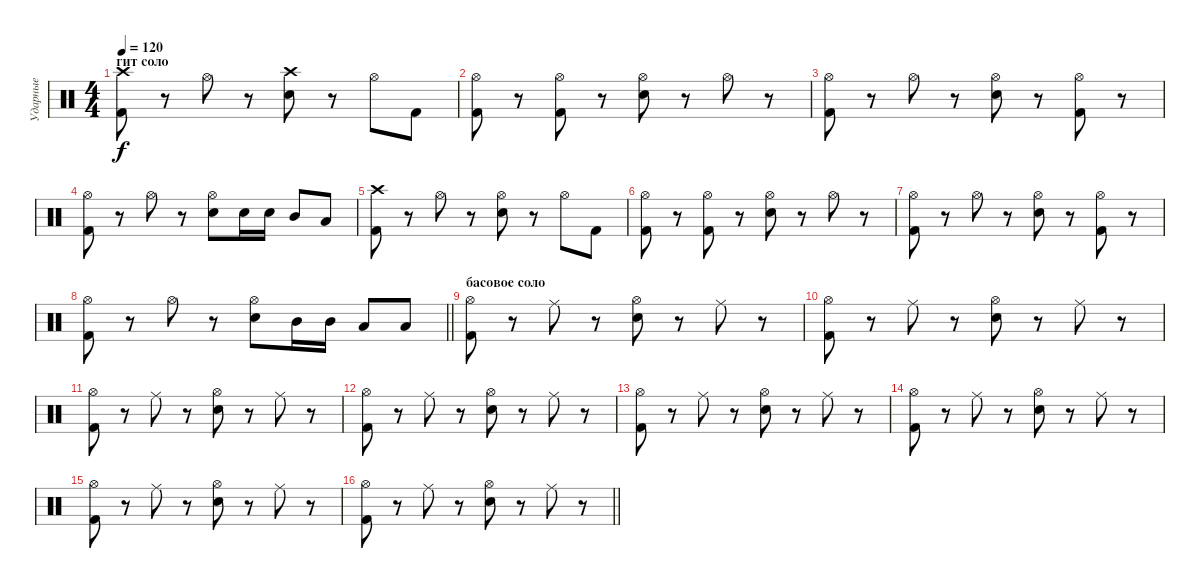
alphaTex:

\track ("Ударные" "Ударные") {instrument percussion}
\staff {score}
\articulation defaults
\ts (4 4)
\section ("" "гит соло")
\tempo 120
\clef neutral
\ks c
("Kick (hit) 2" "Crash high (hit)").8{dy f} r.8 "Hi-Hat (open)".8 r.8 ("Snare (hit) 2" "Crash high (hit)").8 r.8 "Hi-Hat (open)".8 "Kick (hit) 2".8 |
("Kick (hit) 2" "Hi-Hat (open)").8 r.8 ("Kick (hit) 2" "Hi-Hat (open)").8 r.8 ("Snare (hit) 2" "Hi-Hat (open)").8 r.8 "Hi-Hat (open)".8 r.8 |
("Kick (hit) 2" "Hi-Hat (open)").8 r.8 "Hi-Hat (open)".8 r.8 ("Snare (hit) 2" "Hi-Hat (open)").8 r.8 ("Kick (hit) 2" "Hi-Hat (open)").8 r.8 |
("Kick (hit) 2" "Hi-Hat (open)").8 r.8 "Hi-Hat (open)".8 r.8 ("Snare (hit) 2" "Hi-Hat (open)").8 "Snare (hit) 2".16 "Snare (hit) 2".16 "Mid Tom (hit)".8 "Low Tom (hit)".8 |
("Kick (hit) 2" "Crash high (hit)").8 r.8 "Hi-Hat (open)".8 r.8 ("Snare (hit) 2" "Hi-Hat (open)").8 r.8 "Hi-Hat (open)".8 "Kick (hit) 2".8 |
("Kick (hit) 2" "Hi-Hat (open)").8 r.8 ("Kick (hit) 2" "Hi-Hat (open)").8 r.8 ("Snare (hit) 2" "Hi-Hat (open)").8 r.8 "Hi-Hat (open)".8 r.8 |
("Kick (hit) 2" "Hi-Hat (open)").8 r.8 "Hi-Hat (open)".8 r.8 ("Snare (hit) 2" "Hi-Hat (open)").8 r.8 ("Kick (hit) 2" "Hi-Hat (open)").8 r.8 |
\barLineRight lightlight
("Kick (hit) 2" "Hi-Hat (open)").8 r.8 "Hi-Hat (open)".8 r.8 ("Snare (hit) 2" "Hi-Hat (open)").8 "Mid Tom (hit)".16 "Mid Tom (hit)".16 "Low Tom (hit)".8 "Low Tom (hit)".8 |
\section ("" "басовое соло")
("Kick (hit) 2" "Hi-Hat (open)").8 r.8 "Ride (middle)".8 r.8 ("Snare (hit) 2" "Hi-Hat (open)").8 r.8 "Ride (middle)".8 r.8 |
("Kick (hit) 2" "Hi-Hat (open)").8 r.8 "Ride (middle)".8 r.8 ("Snare (hit) 2" "Hi-Hat (open)").8 r.8 "Ride (middle)".8 r.8 |
("Kick (hit) 2" "Hi-Hat (open)").8 r.8 "Ride (middle)".8 r.8 ("Snare (hit) 2" "Hi-Hat (open)").8 r.8 "Ride (middle)".8 r.8 |
("Kick (hit) 2" "Hi-Hat (open)").8 r.8 "Ride (middle)".8 r.8 ("Snare (hit) 2" "Hi-Hat (open)").8 r.8 "Ride (middle)".8 r.8 |
("Kick (hit) 2" "Hi-Hat (open)").8 r.8 "Ride (middle)".8 r.8 ("Snare (hit) 2" "Hi-Hat (open)").8 r.8 "Ride (middle)".8 r.8 |
("Kick (hit) 2" "Hi-Hat (open)").8 r.8 "Ride (middle)".8 r.8 ("Snare (hit) 2" "Hi-Hat (open)").8 r.8 "Ride (middle)".8 r.8 |
("Kick (hit) 2" "Hi-Hat (open)").8 r.8 "Ride (middle)".8 r.8 ("Snare (hit) 2" "Hi-Hat (open)").8 r.8 "Ride (middle)".8 r.8 |
\barLineRight lightlight
("Kick (hit) 2" "Hi-Hat (open)").8 r.8 "Ride (middle)".8 r.8 ("Snare (hit) 2" "Hi-Hat (open)").8 r.8 "Ride (middle)".8 r.8
